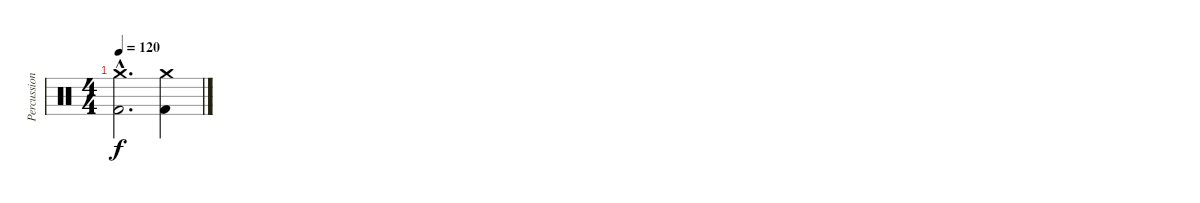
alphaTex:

\track ("Percussions" "Percussion") {instrument percussion}
\staff {score}
\articulation defaults
\ts (4 4)
\tempo 120
\clef neutral
\ks c
("Crash medium (hit)"{hac t} "Kick (hit) 2"{hac t}).2{d dy f} ("Crash medium (hit)" "Kick (hit) 2").4
